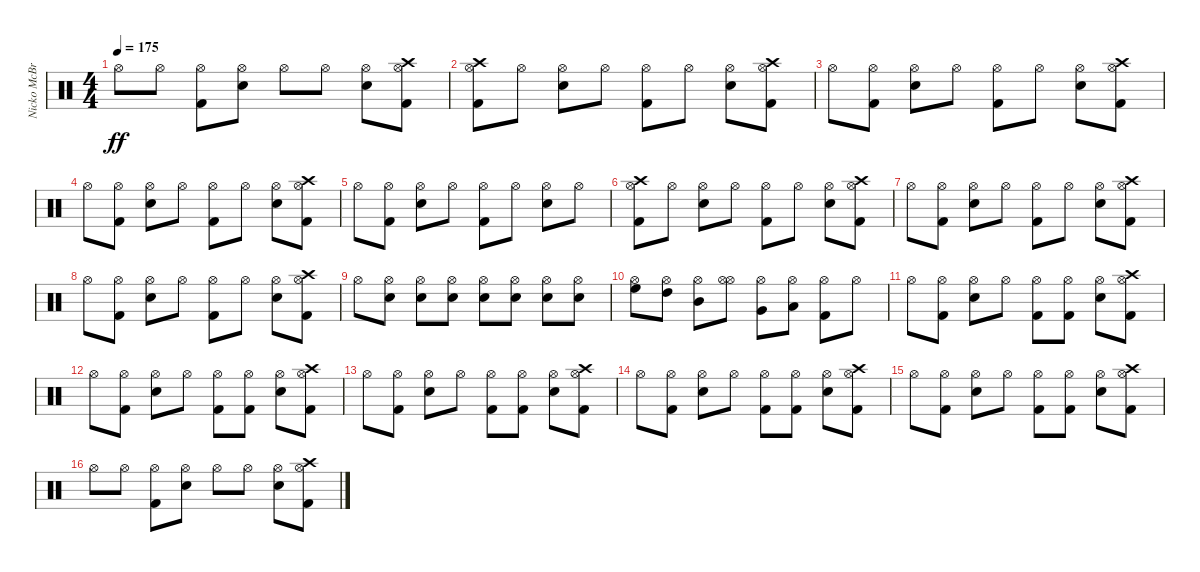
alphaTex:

\track ("Nicko McBrain" "Nicko McBr") {instrument percussion}
\staff {score}
\articulation defaults
\ts (4 4)
\tempo 175
\clef neutral
\ks c "Hi-Hat (open)".8{dy ff} "Hi-Hat (open)".8
("Kick (hit) 2" "Hi-Hat (open)").8 ("Snare (hit) 2" "Hi-Hat (open)").8 "Hi-Hat (open)".8 "Hi-Hat (open)".8 ("Snare (hit) 2" "Hi-Hat (open)").8 ("Kick (hit) 2" "Hi-Hat (open)" "Crash high (hit)").8 |
("Kick (hit) 2" "Hi-Hat (open)" "Crash high (hit)").8 "Hi-Hat (open)".8 ("Snare (hit) 2" "Hi-Hat (open)").8 "Hi-Hat (open)".8 ("Kick (hit) 2" "Hi-Hat (open)").8 "Hi-Hat (open)".8 ("Snare (hit) 2" "Hi-Hat (open)").8 ("Kick (hit) 2" "Hi-Hat (open)" "Crash high (hit)").8 |
"Hi-Hat (open)".8 ("Kick (hit) 2" "Hi-Hat (open)").8 ("Snare (hit) 2" "Hi-Hat (open)").8 "Hi-Hat (open)".8 ("Kick (hit) 2" "Hi-Hat (open)").8 "Hi-Hat (open)".8 ("Snare (hit) 2" "Hi-Hat (open)").8 ("Kick (hit) 2" "Hi-Hat (open)" "Crash high (hit)").8 |
"Hi-Hat (open)".8 ("Kick (hit) 2" "Hi-Hat (open)").8 ("Snare (hit) 2" "Hi-Hat (open)").8 "Hi-Hat (open)".8 ("Kick (hit) 2" "Hi-Hat (open)").8 "Hi-Hat (open)".8 ("Snare (hit) 2" "Hi-Hat (open)").8 ("Kick (hit) 2" "Hi-Hat (open)" "Crash high (hit)").8 |
"Hi-Hat (open)".8 ("Kick (hit) 2" "Hi-Hat (open)").8 ("Snare (hit) 2" "Hi-Hat (open)").8 "Hi-Hat (open)".8 ("Kick (hit) 2" "Hi-Hat (open)").8 "Hi-Hat (open)".8 ("Snare (hit) 2" "Hi-Hat (open)").8 "Hi-Hat (open)".8 |
("Kick (hit) 2" "Hi-Hat (open)" "Crash high (hit)").8 "Hi-Hat (open)".8 ("Snare (hit) 2" "Hi-Hat (open)").8 "Hi-Hat (open)".8 ("Kick (hit) 2" "Hi-Hat (open)").8 "Hi-Hat (open)".8 ("Snare (hit) 2" "Hi-Hat (open)").8 ("Kick (hit) 2" "Hi-Hat (open)" "Crash high (hit)").8 |
"Hi-Hat (open)".8 ("Kick (hit) 2" "Hi-Hat (open)").8 ("Snare (hit) 2" "Hi-Hat (open)").8 "Hi-Hat (open)".8 ("Kick (hit) 2" "Hi-Hat (open)").8 "Hi-Hat (open)".8 ("Snare (hit) 2" "Hi-Hat (open)").8 ("Kick (hit) 2" "Hi-Hat (open)" "Crash high (hit)").8 |
"Hi-Hat (open)".8 ("Kick (hit) 2" "Hi-Hat (open)").8 ("Snare (hit) 2" "Hi-Hat (open)").8 "Hi-Hat (open)".8 ("Kick (hit) 2" "Hi-Hat (open)").8 "Hi-Hat (open)".8 ("Snare (hit) 2" "Hi-Hat (open)").8 ("Kick (hit) 2" "Hi-Hat (open)" "Crash high (hit)").8 |
"Hi-Hat (open)".8 ("Snare (hit) 2" "Hi-Hat (open)").8 ("Snare (hit) 2" "Hi-Hat (open)").8 ("Snare (hit) 2" "Hi-Hat (open)").8 ("Snare (hit) 2" "Hi-Hat (open)").8 ("Snare (hit) 2" "Hi-Hat (open)").8 ("Snare (hit) 2" "Hi-Hat (open)").8 ("Snare (hit) 2" "Hi-Hat (open)").8 |
("Hi-Hat (open)" "High Floor Tom (hit)").8 ("Hi-Hat (open)" "High Tom (hit)").8 ("Hi-Hat (open)" "Mid Tom (hit)").8 ("Hi-Hat (open)" "Hi-Hat (open)").8 ("Very Low Tom (hit)" "Hi-Hat (open)").8 ("Low Floor Tom (hit)" "Hi-Hat (open)").8 ("Kick (hit) 2" "Hi-Hat (open)").8 "Hi-Hat (open)".8 |
"Hi-Hat (open)".8 ("Kick (hit) 2" "Hi-Hat (open)").8 ("Snare (hit) 2" "Hi-Hat (open)").8 "Hi-Hat (open)".8 ("Kick (hit) 2" "Hi-Hat (open)").8 ("Kick (hit) 2" "Hi-Hat (open)").8 ("Snare (hit) 2" "Hi-Hat (open)").8 ("Kick (hit) 2" "Hi-Hat (open)" "Crash high (hit)").8 |
"Hi-Hat (open)".8 ("Kick (hit) 2" "Hi-Hat (open)").8 ("Snare (hit) 2" "Hi-Hat (open)").8 "Hi-Hat (open)".8 ("Kick (hit) 2" "Hi-Hat (open)").8 ("Kick (hit) 2" "Hi-Hat (open)").8 ("Snare (hit) 2" "Hi-Hat (open)").8 ("Kick (hit) 2" "Hi-Hat (open)" "Crash high (hit)").8 |
"Hi-Hat (open)".8 ("Kick (hit) 2" "Hi-Hat (open)").8 ("Snare (hit) 2" "Hi-Hat (open)").8 "Hi-Hat (open)".8 ("Kick (hit) 2" "Hi-Hat (open)").8 ("Kick (hit) 2" "Hi-Hat (open)").8 ("Snare (hit) 2" "Hi-Hat (open)").8 ("Kick (hit) 2" "Hi-Hat (open)" "Crash high (hit)").8 |
"Hi-Hat (open)".8 ("Kick (hit) 2" "Hi-Hat (open)").8 ("Snare (hit) 2" "Hi-Hat (open)").8 "Hi-Hat (open)".8 ("Kick (hit) 2" "Hi-Hat (open)").8 ("Kick (hit) 2" "Hi-Hat (open)").8 ("Snare (hit) 2" "Hi-Hat (open)").8 ("Kick (hit) 2" "Hi-Hat (open)" "Crash high (hit)").8 |
"Hi-Hat (open)".8 ("Kick (hit) 2" "Hi-Hat (open)").8 ("Snare (hit) 2" "Hi-Hat (open)").8 "Hi-Hat (open)".8 ("Kick (hit) 2" "Hi-Hat (open)").8 ("Kick (hit) 2" "Hi-Hat (open)").8 ("Snare (hit) 2" "Hi-Hat (open)").8 ("Kick (hit) 2" "Hi-Hat (open)" "Crash high (hit)").8 |
"Hi-Hat (open)".8 "Hi-Hat (open)".8 ("Kick (hit) 2" "Hi-Hat (open)").8 ("Snare (hit) 2" "Hi-Hat (open)").8 "Hi-Hat (open)".8 "Hi-Hat (open)".8 ("Snare (hit) 2" "Hi-Hat (open)").8 ("Kick (hit) 2" "Hi-Hat (open)" "Crash high (hit)").8
